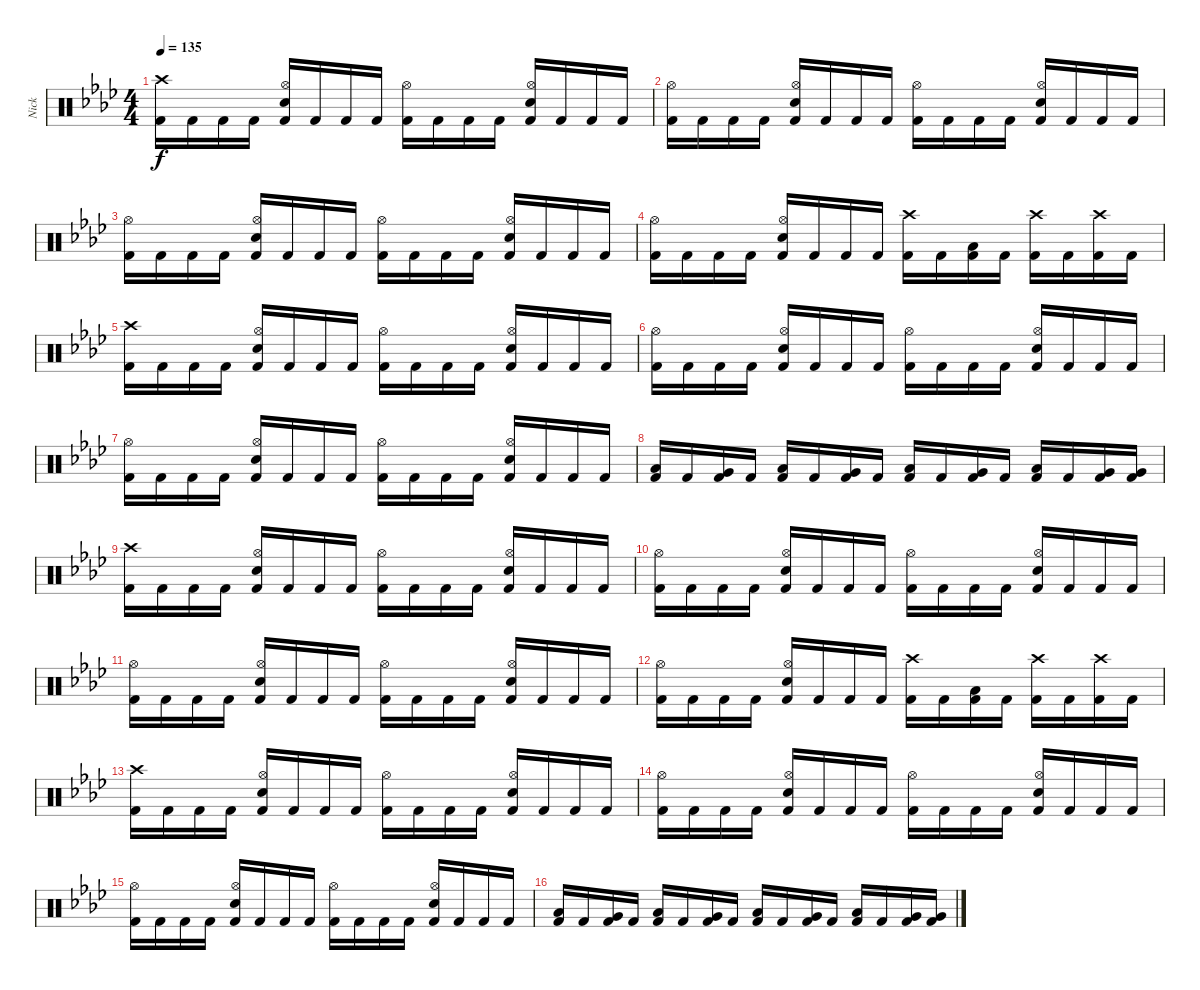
\track ("Nick" "Nick") {instrument percussion}
\staff {score}
\articulation defaults
\ts (4 4)
\tempo 135
\clef neutral
\ks ab
("Crash high (hit)" "Kick (hit) 2").16{dy f} "Kick (hit) 2".16 "Kick (hit) 2".16 "Kick (hit) 2".16 ("Hi-Hat (open)" "Snare (hit) 2" "Kick (hit) 2").16 "Kick (hit) 2".16 "Kick (hit) 2".16 "Kick (hit) 2".16 ("Hi-Hat (open)" "Kick (hit) 2").16 "Kick (hit) 2".16 "Kick (hit) 2".16 "Kick (hit) 2".16 ("Hi-Hat (open)" "Snare (hit) 2" "Kick (hit) 2").16 "Kick (hit) 2".16 "Kick (hit) 2".16 "Kick (hit) 2".16 |
("Hi-Hat (open)" "Kick (hit) 2").16 "Kick (hit) 2".16 "Kick (hit) 2".16 "Kick (hit) 2".16 ("Hi-Hat (open)" "Snare (hit) 2" "Kick (hit) 2").16 "Kick (hit) 2".16 "Kick (hit) 2".16 "Kick (hit) 2".16 ("Hi-Hat (open)" "Kick (hit) 2").16 "Kick (hit) 2".16 "Kick (hit) 2".16 "Kick (hit) 2".16 ("Hi-Hat (open)" "Snare (hit) 2" "Kick (hit) 2").16 "Kick (hit) 2".16 "Kick (hit) 2".16 "Kick (hit) 2".16 |
("Hi-Hat (open)" "Kick (hit) 2").16 "Kick (hit) 2".16 "Kick (hit) 2".16 "Kick (hit) 2".16 ("Hi-Hat (open)" "Snare (hit) 2" "Kick (hit) 2").16 "Kick (hit) 2".16 "Kick (hit) 2".16 "Kick (hit) 2".16 ("Hi-Hat (open)" "Kick (hit) 2").16 "Kick (hit) 2".16 "Kick (hit) 2".16 "Kick (hit) 2".16 ("Hi-Hat (open)" "Snare (hit) 2" "Kick (hit) 2").16 "Kick (hit) 2".16 "Kick (hit) 2".16 "Kick (hit) 2".16 |
("Hi-Hat (open)" "Kick (hit) 2").16 "Kick (hit) 2".16 "Kick (hit) 2".16 "Kick (hit) 2".16 ("Hi-Hat (open)" "Snare (hit) 2" "Kick (hit) 2").16 "Kick (hit) 2".16 "Kick (hit) 2".16 "Kick (hit) 2".16 ("Crash high (hit)" "Kick (hit) 2").16 "Kick (hit) 2".16 ("Low Floor Tom (hit)" "Kick (hit) 2").16 "Kick (hit) 2".16 ("Crash high (hit)" "Kick (hit) 2").16 "Kick (hit) 2".16 ("Crash high (hit)" "Kick (hit) 2").16 "Kick (hit) 2".16 |
("Crash high (hit)" "Kick (hit) 2").16 "Kick (hit) 2".16 "Kick (hit) 2".16 "Kick (hit) 2".16 ("Hi-Hat (open)" "Snare (hit) 2" "Kick (hit) 2").16 "Kick (hit) 2".16 "Kick (hit) 2".16 "Kick (hit) 2".16 ("Hi-Hat (open)" "Kick (hit) 2").16 "Kick (hit) 2".16 "Kick (hit) 2".16 "Kick (hit) 2".16 ("Hi-Hat (open)" "Snare (hit) 2" "Kick (hit) 2").16 "Kick (hit) 2".16 "Kick (hit) 2".16 "Kick (hit) 2".16 |
("Hi-Hat (open)" "Kick (hit) 2").16 "Kick (hit) 2".16 "Kick (hit) 2".16 "Kick (hit) 2".16 ("Hi-Hat (open)" "Snare (hit) 2" "Kick (hit) 2").16 "Kick (hit) 2".16 "Kick (hit) 2".16 "Kick (hit) 2".16 ("Hi-Hat (open)" "Kick (hit) 2").16 "Kick (hit) 2".16 "Kick (hit) 2".16 "Kick (hit) 2".16 ("Hi-Hat (open)" "Snare (hit) 2" "Kick (hit) 2").16 "Kick (hit) 2".16 "Kick (hit) 2".16 "Kick (hit) 2".16 |
("Hi-Hat (open)" "Kick (hit) 2").16 "Kick (hit) 2".16 "Kick (hit) 2".16 "Kick (hit) 2".16 ("Hi-Hat (open)" "Snare (hit) 2" "Kick (hit) 2").16 "Kick (hit) 2".16 "Kick (hit) 2".16 "Kick (hit) 2".16 ("Hi-Hat (open)" "Kick (hit) 2").16 "Kick (hit) 2".16 "Kick (hit) 2".16 "Kick (hit) 2".16 ("Hi-Hat (open)" "Snare (hit) 2" "Kick (hit) 2").16 "Kick (hit) 2".16 "Kick (hit) 2".16 "Kick (hit) 2".16 |
("Low Tom (hit)" "Kick (hit) 2").16 "Kick (hit) 2".16 ("Very Low Tom (hit)" "Kick (hit) 2").16 "Kick (hit) 2".16 ("Low Tom (hit)" "Kick (hit) 2").16 "Kick (hit) 2".16 ("Very Low Tom (hit)" "Kick (hit) 2").16 "Kick (hit) 2".16 ("Low Tom (hit)" "Kick (hit) 2").16 "Kick (hit) 2".16 ("Very Low Tom (hit)" "Kick (hit) 2").16 "Kick (hit) 2".16 ("Low Tom (hit)" "Kick (hit) 2").16 "Kick (hit) 2".16 ("Very Low Tom (hit)" "Kick (hit) 2").16 ("Very Low Tom (hit)" "Kick (hit) 2").16 |
("Crash high (hit)" "Kick (hit) 2").16 "Kick (hit) 2".16 "Kick (hit) 2".16 "Kick (hit) 2".16 ("Hi-Hat (open)" "Snare (hit) 2" "Kick (hit) 2").16 "Kick (hit) 2".16 "Kick (hit) 2".16 "Kick (hit) 2".16 ("Hi-Hat (open)" "Kick (hit) 2").16 "Kick (hit) 2".16 "Kick (hit) 2".16 "Kick (hit) 2".16 ("Hi-Hat (open)" "Snare (hit) 2" "Kick (hit) 2").16 "Kick (hit) 2".16 "Kick (hit) 2".16 "Kick (hit) 2".16 |
("Hi-Hat (open)" "Kick (hit) 2").16 "Kick (hit) 2".16 "Kick (hit) 2".16 "Kick (hit) 2".16 ("Hi-Hat (open)" "Snare (hit) 2" "Kick (hit) 2").16 "Kick (hit) 2".16 "Kick (hit) 2".16 "Kick (hit) 2".16 ("Hi-Hat (open)" "Kick (hit) 2").16 "Kick (hit) 2".16 "Kick (hit) 2".16 "Kick (hit) 2".16 ("Hi-Hat (open)" "Snare (hit) 2" "Kick (hit) 2").16 "Kick (hit) 2".16 "Kick (hit) 2".16 "Kick (hit) 2".16 |
("Hi-Hat (open)" "Kick (hit) 2").16 "Kick (hit) 2".16 "Kick (hit) 2".16 "Kick (hit) 2".16 ("Hi-Hat (open)" "Snare (hit) 2" "Kick (hit) 2").16 "Kick (hit) 2".16 "Kick (hit) 2".16 "Kick (hit) 2".16 ("Hi-Hat (open)" "Kick (hit) 2").16 "Kick (hit) 2".16 "Kick (hit) 2".16 "Kick (hit) 2".16 ("Hi-Hat (open)" "Snare (hit) 2" "Kick (hit) 2").16 "Kick (hit) 2".16 "Kick (hit) 2".16 "Kick (hit) 2".16 |
("Hi-Hat (open)" "Kick (hit) 2").16 "Kick (hit) 2".16 "Kick (hit) 2".16 "Kick (hit) 2".16 ("Hi-Hat (open)" "Snare (hit) 2" "Kick (hit) 2").16 "Kick (hit) 2".16 "Kick (hit) 2".16 "Kick (hit) 2".16 ("Crash high (hit)" "Kick (hit) 2").16 "Kick (hit) 2".16 ("Low Floor Tom (hit)" "Kick (hit) 2").16 "Kick (hit) 2".16 ("Crash high (hit)" "Kick (hit) 2").16 "Kick (hit) 2".16 ("Crash high (hit)" "Kick (hit) 2").16 "Kick (hit) 2".16 |
("Crash high (hit)" "Kick (hit) 2").16 "Kick (hit) 2".16 "Kick (hit) 2".16 "Kick (hit) 2".16 ("Hi-Hat (open)" "Snare (hit) 2" "Kick (hit) 2").16 "Kick (hit) 2".16 "Kick (hit) 2".16 "Kick (hit) 2".16 ("Hi-Hat (open)" "Kick (hit) 2").16 "Kick (hit) 2".16 "Kick (hit) 2".16 "Kick (hit) 2".16 ("Hi-Hat (open)" "Snare (hit) 2" "Kick (hit) 2").16 "Kick (hit) 2".16 "Kick (hit) 2".16 "Kick (hit) 2".16 |
("Hi-Hat (open)" "Kick (hit) 2").16 "Kick (hit) 2".16 "Kick (hit) 2".16 "Kick (hit) 2".16 ("Hi-Hat (open)" "Snare (hit) 2" "Kick (hit) 2").16 "Kick (hit) 2".16 "Kick (hit) 2".16 "Kick (hit) 2".16 ("Hi-Hat (open)" "Kick (hit) 2").16 "Kick (hit) 2".16 "Kick (hit) 2".16 "Kick (hit) 2".16 ("Hi-Hat (open)" "Snare (hit) 2" "Kick (hit) 2").16 "Kick (hit) 2".16 "Kick (hit) 2".16 "Kick (hit) 2".16 |
("Hi-Hat (open)" "Kick (hit) 2").16 "Kick (hit) 2".16 "Kick (hit) 2".16 "Kick (hit) 2".16 ("Hi-Hat (open)" "Snare (hit) 2" "Kick (hit) 2").16 "Kick (hit) 2".16 "Kick (hit) 2".16 "Kick (hit) 2".16 ("Hi-Hat (open)" "Kick (hit) 2").16 "Kick (hit) 2".16 "Kick (hit) 2".16 "Kick (hit) 2".16 ("Hi-Hat (open)" "Snare (hit) 2" "Kick (hit) 2").16 "Kick (hit) 2".16 "Kick (hit) 2".16 "Kick (hit) 2".16 |
("Low Tom (hit)" "Kick (hit) 2").16 "Kick (hit) 2".16 ("Very Low Tom (hit)" "Kick (hit) 2").16 "Kick (hit) 2".16 ("Low Tom (hit)" "Kick (hit) 2").16 "Kick (hit) 2".16 ("Very Low Tom (hit)" "Kick (hit) 2").16 "Kick (hit) 2".16 ("Low Tom (hit)" "Kick (hit) 2").16 "Kick (hit) 2".16 ("Very Low Tom (hit)" "Kick (hit) 2").16 "Kick (hit) 2".16 ("Low Tom (hit)" "Kick (hit) 2").16 "Kick (hit) 2".16 ("Very Low Tom (hit)" "Kick (hit) 2").16 ("Very Low Tom (hit)" "Kick (hit) 2").16
